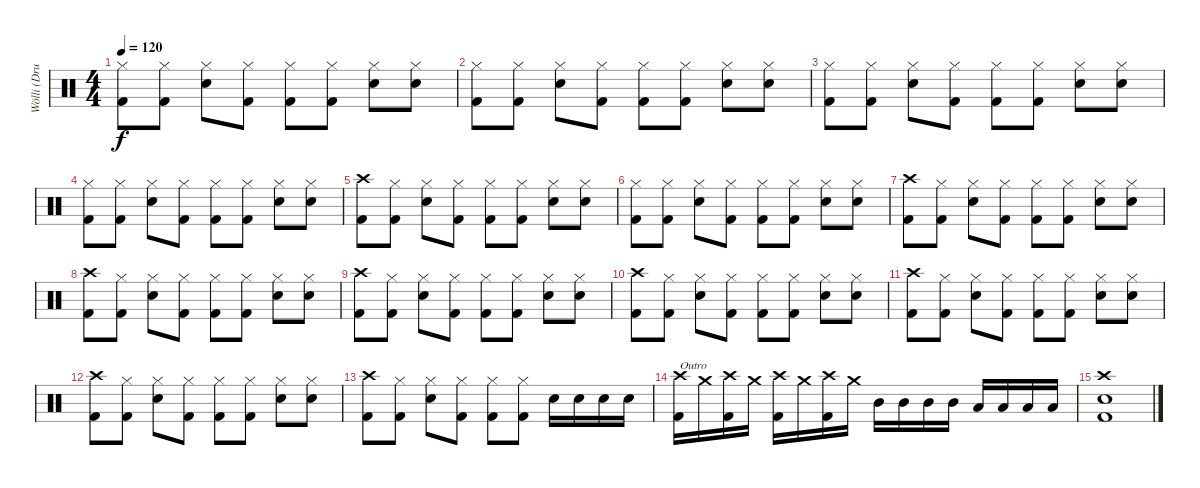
\track ("Wölli (Drums)" "Wölli (Dru") {instrument percussion}
\staff {score}
\articulation defaults
\ts (4 4)
\tempo 120
\clef neutral
\ks c
("Hi-Hat (closed)" "Kick (hit) 2").8{dy f} ("Hi-Hat (closed)" "Kick (hit) 2").8 ("Hi-Hat (closed)" "Snare (hit) 2").8 ("Hi-Hat (closed)" "Kick (hit) 2").8 ("Hi-Hat (closed)" "Kick (hit) 2").8 ("Hi-Hat (closed)" "Kick (hit) 2").8 ("Hi-Hat (closed)" "Snare (hit) 2").8 ("Hi-Hat (closed)" "Snare (hit) 2").8 |
("Hi-Hat (closed)" "Kick (hit) 2").8 ("Hi-Hat (closed)" "Kick (hit) 2").8 ("Hi-Hat (closed)" "Snare (hit) 2").8 ("Hi-Hat (closed)" "Kick (hit) 2").8 ("Hi-Hat (closed)" "Kick (hit) 2").8 ("Hi-Hat (closed)" "Kick (hit) 2").8 ("Hi-Hat (closed)" "Snare (hit) 2").8 ("Hi-Hat (closed)" "Snare (hit) 2").8 |
("Hi-Hat (closed)" "Kick (hit) 2").8 ("Hi-Hat (closed)" "Kick (hit) 2").8 ("Hi-Hat (closed)" "Snare (hit) 2").8 ("Hi-Hat (closed)" "Kick (hit) 2").8 ("Hi-Hat (closed)" "Kick (hit) 2").8 ("Hi-Hat (closed)" "Kick (hit) 2").8 ("Hi-Hat (closed)" "Snare (hit) 2").8 ("Hi-Hat (closed)" "Snare (hit) 2").8 |
("Hi-Hat (closed)" "Kick (hit) 2").8 ("Hi-Hat (closed)" "Kick (hit) 2").8 ("Hi-Hat (closed)" "Snare (hit) 2").8 ("Hi-Hat (closed)" "Kick (hit) 2").8 ("Hi-Hat (closed)" "Kick (hit) 2").8 ("Hi-Hat (closed)" "Kick (hit) 2").8 ("Hi-Hat (closed)" "Snare (hit) 2").8 ("Hi-Hat (closed)" "Snare (hit) 2").8 |
("Crash high (hit)" "Kick (hit) 2").8 ("Hi-Hat (closed)" "Kick (hit) 2").8 ("Hi-Hat (closed)" "Snare (hit) 2").8 ("Hi-Hat (closed)" "Kick (hit) 2").8 ("Hi-Hat (closed)" "Kick (hit) 2").8 ("Hi-Hat (closed)" "Kick (hit) 2").8 ("Hi-Hat (closed)" "Snare (hit) 2").8 ("Hi-Hat (closed)" "Snare (hit) 2").8 |
("Hi-Hat (closed)" "Kick (hit) 2").8 ("Hi-Hat (closed)" "Kick (hit) 2").8 ("Hi-Hat (closed)" "Snare (hit) 2").8 ("Hi-Hat (closed)" "Kick (hit) 2").8 ("Hi-Hat (closed)" "Kick (hit) 2").8 ("Hi-Hat (closed)" "Kick (hit) 2").8 ("Hi-Hat (closed)" "Snare (hit) 2").8 ("Hi-Hat (closed)" "Snare (hit) 2").8 |
("Crash high (hit)" "Kick (hit) 2").8 ("Hi-Hat (closed)" "Kick (hit) 2").8 ("Hi-Hat (closed)" "Snare (hit) 2").8 ("Hi-Hat (closed)" "Kick (hit) 2").8 ("Hi-Hat (closed)" "Kick (hit) 2").8 ("Hi-Hat (closed)" "Kick (hit) 2").8 ("Hi-Hat (closed)" "Snare (hit) 2").8 ("Hi-Hat (closed)" "Snare (hit) 2").8 |
("Crash high (hit)" "Kick (hit) 2").8 ("Hi-Hat (closed)" "Kick (hit) 2").8 ("Hi-Hat (closed)" "Snare (hit) 2").8 ("Hi-Hat (closed)" "Kick (hit) 2").8 ("Hi-Hat (closed)" "Kick (hit) 2").8 ("Hi-Hat (closed)" "Kick (hit) 2").8 ("Hi-Hat (closed)" "Snare (hit) 2").8 ("Hi-Hat (closed)" "Snare (hit) 2").8 |
("Crash high (hit)" "Kick (hit) 2").8 ("Hi-Hat (closed)" "Kick (hit) 2").8 ("Hi-Hat (closed)" "Snare (hit) 2").8 ("Hi-Hat (closed)" "Kick (hit) 2").8 ("Hi-Hat (closed)" "Kick (hit) 2").8 ("Hi-Hat (closed)" "Kick (hit) 2").8 ("Hi-Hat (closed)" "Snare (hit) 2").8 ("Hi-Hat (closed)" "Snare (hit) 2").8 |
("Crash high (hit)" "Kick (hit) 2").8 ("Hi-Hat (closed)" "Kick (hit) 2").8 ("Hi-Hat (closed)" "Snare (hit) 2").8 ("Hi-Hat (closed)" "Kick (hit) 2").8 ("Hi-Hat (closed)" "Kick (hit) 2").8 ("Hi-Hat (closed)" "Kick (hit) 2").8 ("Hi-Hat (closed)" "Snare (hit) 2").8 ("Hi-Hat (closed)" "Snare (hit) 2").8 |
("Crash high (hit)" "Kick (hit) 2").8 ("Hi-Hat (closed)" "Kick (hit) 2").8 ("Hi-Hat (closed)" "Snare (hit) 2").8 ("Hi-Hat (closed)" "Kick (hit) 2").8 ("Hi-Hat (closed)" "Kick (hit) 2").8 ("Hi-Hat (closed)" "Kick (hit) 2").8 ("Hi-Hat (closed)" "Snare (hit) 2").8 ("Hi-Hat (closed)" "Snare (hit) 2").8 |
("Crash high (hit)" "Kick (hit) 2").8 ("Hi-Hat (closed)" "Kick (hit) 2").8 ("Hi-Hat (closed)" "Snare (hit) 2").8 ("Hi-Hat (closed)" "Kick (hit) 2").8 ("Hi-Hat (closed)" "Kick (hit) 2").8 ("Hi-Hat (closed)" "Kick (hit) 2").8 ("Hi-Hat (closed)" "Snare (hit) 2").8 ("Hi-Hat (closed)" "Snare (hit) 2").8 |
("Crash high (hit)" "Kick (hit) 2").8 ("Hi-Hat (closed)" "Kick (hit) 2").8 ("Hi-Hat (closed)" "Snare (hit) 2").8 ("Hi-Hat (closed)" "Kick (hit) 2").8 ("Hi-Hat (closed)" "Kick (hit) 2").8 ("Hi-Hat (closed)" "Kick (hit) 2").8 "Snare (hit) 2".16 "Snare (hit) 2".16 "Snare (hit) 2".16 "Snare (hit) 2".16 |
("Crash high (hit)" "Kick (hit) 2").16{txt "Outro"} "Crash medium (hit)".16 ("Crash high (hit)" "Kick (hit) 2").16 "Crash medium (hit)".16 ("Crash high (hit)" "Kick (hit) 2").16 "Crash medium (hit)".16 ("Crash high (hit)" "Kick (hit) 2").16 "Crash medium (hit)".16 "Mid Tom (hit)".16 "Mid Tom (hit)".16 "Mid Tom (hit)".16 "Mid Tom (hit)".16 "Low Tom (hit)".16 "Low Tom (hit)".16 "Low Tom (hit)".16 "Low Tom (hit)".16 |
("Crash high (hit)" "Snare (hit) 2" "Kick (hit) 2").1
